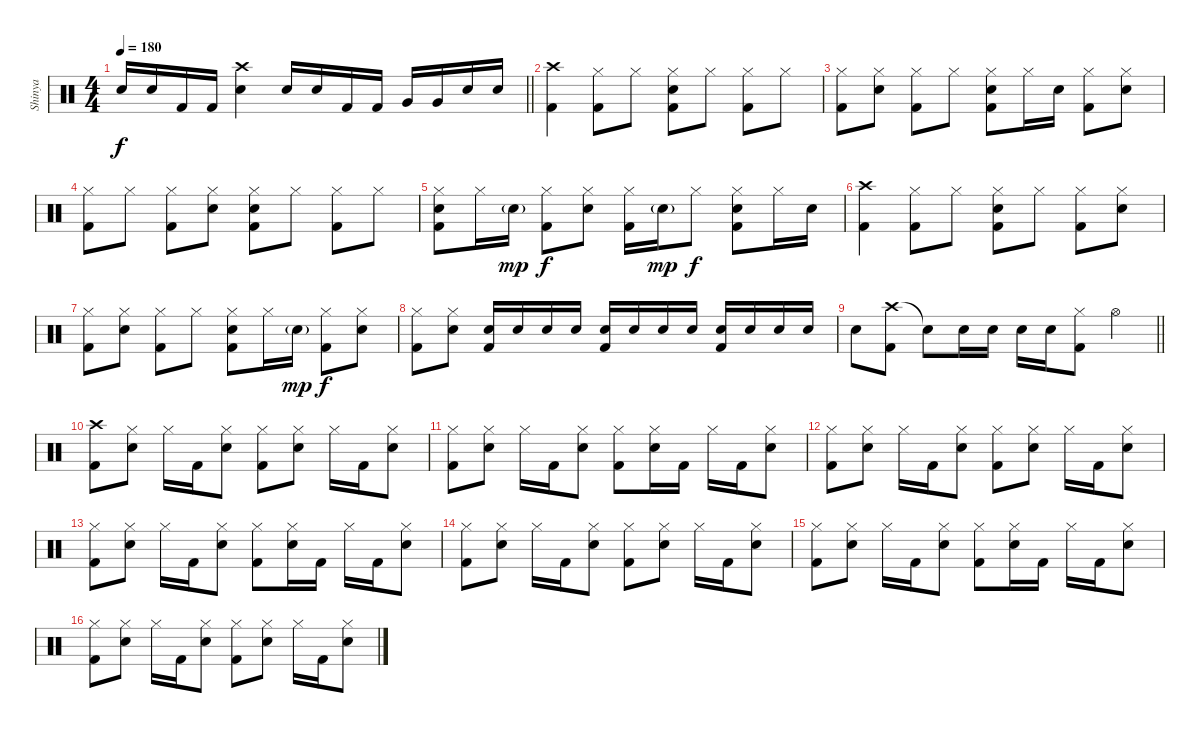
\track ("Shinya" "Shinya") {instrument percussion}
\staff {score}
\articulation defaults
\ts (4 4)
\tempo 180
\clef neutral
\barLineRight lightlight
\ks c "Electric Snare (hit)".16{dy f} "Electric Snare (hit)".16 "Kick (hit) 2".16 "Kick (hit) 2".16
("Crash high (hit)" "Electric Snare (hit)").4 "Electric Snare (hit)".16 "Electric Snare (hit)".16 "Kick (hit) 2".16 "Kick (hit) 2".16 "Very Low Tom (hit)".16 "Very Low Tom (hit)".16 "Electric Snare (hit)".16 "Electric Snare (hit)".16 |
("Crash high (hit)" "Kick (hit) 2").4 ("Hi-Hat (closed)" "Kick (hit) 2").8 "Hi-Hat (closed)".8 ("Hi-Hat (closed)" "Electric Snare (hit)" "Kick (hit) 2").8 "Hi-Hat (closed)".8 ("Hi-Hat (closed)" "Kick (hit) 2").8 "Hi-Hat (closed)".8 |
("Hi-Hat (closed)" "Kick (hit) 2").8 ("Hi-Hat (closed)" "Electric Snare (hit)").8 ("Hi-Hat (closed)" "Kick (hit) 2").8 "Hi-Hat (closed)".8 ("Hi-Hat (closed)" "Electric Snare (hit)" "Kick (hit) 2").8 "Hi-Hat (closed)".16 "Electric Snare (hit)".16 ("Hi-Hat (closed)" "Kick (hit) 2").8 ("Hi-Hat (closed)" "Electric Snare (hit)").8 |
("Hi-Hat (closed)" "Kick (hit) 2").8 "Hi-Hat (closed)".8 ("Hi-Hat (closed)" "Kick (hit) 2").8 ("Hi-Hat (closed)" "Electric Snare (hit)").8 ("Hi-Hat (closed)" "Electric Snare (hit)" "Kick (hit) 2").8 "Hi-Hat (closed)".8 ("Hi-Hat (closed)" "Kick (hit) 2").8 "Hi-Hat (closed)".8 |
("Hi-Hat (closed)" "Electric Snare (hit)" "Kick (hit) 2").8 "Hi-Hat (closed)".16 "Electric Snare (hit)"{g}.16{dy mp} ("Hi-Hat (closed)" "Kick (hit) 2").8{dy f} ("Hi-Hat (closed)" "Electric Snare (hit)").8 ("Hi-Hat (closed)" "Kick (hit) 2").16 "Electric Snare (hit)"{g}.16{dy mp} "Hi-Hat (closed)".8{dy f} ("Hi-Hat (closed)" "Electric Snare (hit)" "Kick (hit) 2").8 "Hi-Hat (closed)".16 "Electric Snare (hit)".16 |
("Crash high (hit)" "Kick (hit) 2").4 ("Hi-Hat (closed)" "Kick (hit) 2").8 "Hi-Hat (closed)".8 ("Hi-Hat (closed)" "Electric Snare (hit)" "Kick (hit) 2").8 "Hi-Hat (closed)".8 ("Hi-Hat (closed)" "Kick (hit) 2").8 ("Hi-Hat (closed)" "Electric Snare (hit)").8 |
("Hi-Hat (closed)" "Kick (hit) 2").8 ("Hi-Hat (closed)" "Electric Snare (hit)").8 ("Hi-Hat (closed)" "Kick (hit) 2").8 "Hi-Hat (closed)".8 ("Hi-Hat (closed)" "Electric Snare (hit)" "Kick (hit) 2").8 "Hi-Hat (closed)".16 "Electric Snare (hit)"{g}.16{dy mp} ("Hi-Hat (closed)" "Kick (hit) 2").8{dy f} ("Hi-Hat (closed)" "Electric Snare (hit)").8 |
("Hi-Hat (closed)" "Kick (hit) 2").8 ("Hi-Hat (closed)" "Electric Snare (hit)").8 ("Electric Snare (hit)" "Kick (hit) 2").16 "Electric Snare (hit)".16 "Electric Snare (hit)".16 "Electric Snare (hit)".16 ("Electric Snare (hit)" "Kick (hit) 2").16 "Electric Snare (hit)".16 "Electric Snare (hit)".16 "Electric Snare (hit)".16 ("Electric Snare (hit)" "Kick (hit) 2").16 "Electric Snare (hit)".16 "Electric Snare (hit)".16 "Electric Snare (hit)".16 |
\barLineRight lightlight "Electric Snare (hit)".8
("Crash high (hit)" "Kick (hit) 2").8 "Snare (hit)"{t}.8 "Electric Snare (hit)".16 "Electric Snare (hit)".16 "Electric Snare (hit)".16 "Electric Snare (hit)".16 ("Hi-Hat (closed)" "Kick (hit) 2").8 "Hi-Hat (open)".4 |
("Crash high (hit)" "Kick (hit) 2").8 ("Hi-Hat (closed)" "Electric Snare (hit)").8 "Hi-Hat (closed)".16 "Kick (hit) 2".16 ("Hi-Hat (closed)" "Electric Snare (hit)").8 ("Hi-Hat (closed)" "Kick (hit) 2").8 ("Hi-Hat (closed)" "Electric Snare (hit)").8 "Hi-Hat (closed)".16 "Kick (hit) 2".16 ("Hi-Hat (closed)" "Electric Snare (hit)").8 |
("Hi-Hat (closed)" "Kick (hit) 2").8 ("Hi-Hat (closed)" "Electric Snare (hit)").8 "Hi-Hat (closed)".16 "Kick (hit) 2".16 ("Hi-Hat (closed)" "Electric Snare (hit)").8 ("Hi-Hat (closed)" "Kick (hit) 2").8 ("Hi-Hat (closed)" "Electric Snare (hit)").16 "Kick (hit) 2".16 "Hi-Hat (closed)".16 "Kick (hit) 2".16 ("Hi-Hat (closed)" "Electric Snare (hit)").8 |
("Hi-Hat (closed)" "Kick (hit) 2").8 ("Hi-Hat (closed)" "Electric Snare (hit)").8 "Hi-Hat (closed)".16 "Kick (hit) 2".16 ("Hi-Hat (closed)" "Electric Snare (hit)").8 ("Hi-Hat (closed)" "Kick (hit) 2").8 ("Hi-Hat (closed)" "Electric Snare (hit)").8 "Hi-Hat (closed)".16 "Kick (hit) 2".16 ("Hi-Hat (closed)" "Electric Snare (hit)").8 |
("Hi-Hat (closed)" "Kick (hit) 2").8 ("Hi-Hat (closed)" "Electric Snare (hit)").8 "Hi-Hat (closed)".16 "Kick (hit) 2".16 ("Hi-Hat (closed)" "Electric Snare (hit)").8 ("Hi-Hat (closed)" "Kick (hit) 2").8 ("Hi-Hat (closed)" "Electric Snare (hit)").16 "Kick (hit) 2".16 "Hi-Hat (closed)".16 "Kick (hit) 2".16 ("Hi-Hat (closed)" "Electric Snare (hit)").8 |
("Hi-Hat (closed)" "Kick (hit) 2").8 ("Hi-Hat (closed)" "Electric Snare (hit)").8 "Hi-Hat (closed)".16 "Kick (hit) 2".16 ("Hi-Hat (closed)" "Electric Snare (hit)").8 ("Hi-Hat (closed)" "Kick (hit) 2").8 ("Hi-Hat (closed)" "Electric Snare (hit)").8 "Hi-Hat (closed)".16 "Kick (hit) 2".16 ("Hi-Hat (closed)" "Electric Snare (hit)").8 |
("Hi-Hat (closed)" "Kick (hit) 2").8 ("Hi-Hat (closed)" "Electric Snare (hit)").8 "Hi-Hat (closed)".16 "Kick (hit) 2".16 ("Hi-Hat (closed)" "Electric Snare (hit)").8 ("Hi-Hat (closed)" "Kick (hit) 2").8 ("Hi-Hat (closed)" "Electric Snare (hit)").16 "Kick (hit) 2".16 "Hi-Hat (closed)".16 "Kick (hit) 2".16 ("Hi-Hat (closed)" "Electric Snare (hit)").8 |
("Hi-Hat (closed)" "Kick (hit) 2").8 ("Hi-Hat (closed)" "Electric Snare (hit)").8 "Hi-Hat (closed)".16 "Kick (hit) 2".16 ("Hi-Hat (closed)" "Electric Snare (hit)").8 ("Hi-Hat (closed)" "Kick (hit) 2").8 ("Hi-Hat (closed)" "Electric Snare (hit)").8 "Hi-Hat (closed)".16 "Kick (hit) 2".16 ("Hi-Hat (closed)" "Electric Snare (hit)").8
